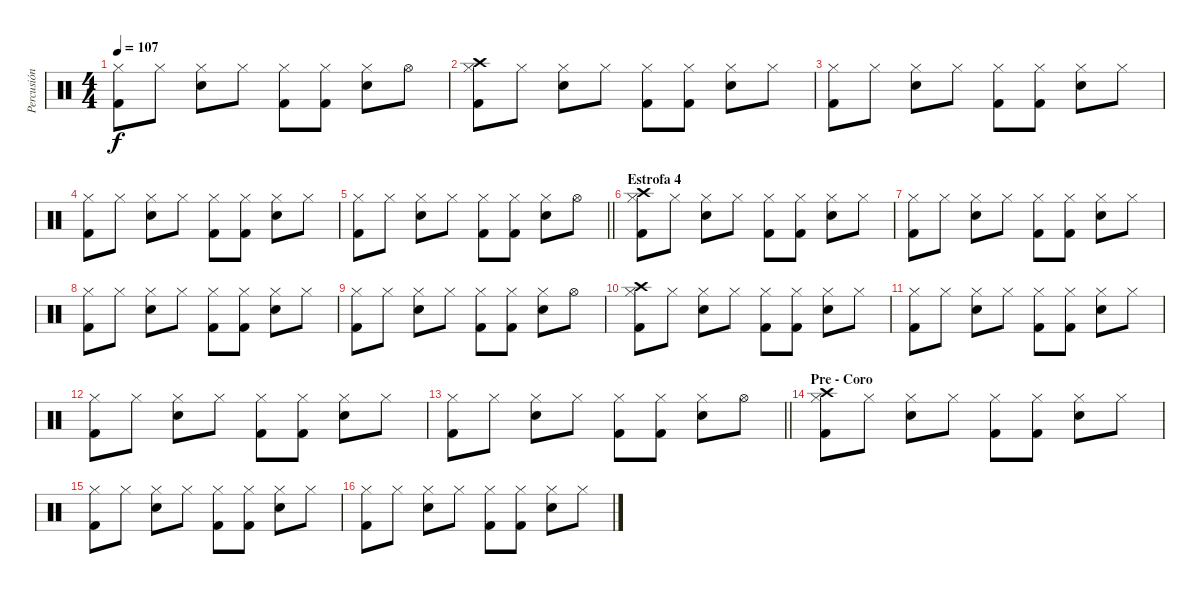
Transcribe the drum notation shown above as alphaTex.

\track ("Percusión" "Percusión") {instrument percussion}
\staff {score}
\articulation defaults
\ts (4 4)
\tempo 107
\clef neutral
\ks c
("Hi-Hat (closed)" "Kick (hit) 2").8{dy f} "Hi-Hat (closed)".8 ("Hi-Hat (closed)" "Snare (hit) 2").8 "Hi-Hat (closed)".8 ("Hi-Hat (closed)" "Kick (hit) 2").8 ("Hi-Hat (closed)" "Kick (hit) 2").8 ("Hi-Hat (closed)" "Snare (hit) 2").8 "Hi-Hat (open)".8 |
("Hi-Hat (closed)" "Kick (hit) 2" "Crash high (hit)").8 "Hi-Hat (closed)".8 ("Hi-Hat (closed)" "Snare (hit) 2").8 "Hi-Hat (closed)".8 ("Hi-Hat (closed)" "Kick (hit) 2").8 ("Hi-Hat (closed)" "Kick (hit) 2").8 ("Hi-Hat (closed)" "Snare (hit) 2").8 "Hi-Hat (closed)".8 |
("Hi-Hat (closed)" "Kick (hit) 2").8 "Hi-Hat (closed)".8 ("Hi-Hat (closed)" "Snare (hit) 2").8 "Hi-Hat (closed)".8 ("Hi-Hat (closed)" "Kick (hit) 2").8 ("Hi-Hat (closed)" "Kick (hit) 2").8 ("Hi-Hat (closed)" "Snare (hit) 2").8 "Hi-Hat (closed)".8 |
("Hi-Hat (closed)" "Kick (hit) 2").8 "Hi-Hat (closed)".8 ("Hi-Hat (closed)" "Snare (hit) 2").8 "Hi-Hat (closed)".8 ("Hi-Hat (closed)" "Kick (hit) 2").8 ("Hi-Hat (closed)" "Kick (hit) 2").8 ("Hi-Hat (closed)" "Snare (hit) 2").8 "Hi-Hat (closed)".8 |
\barLineRight lightlight
("Hi-Hat (closed)" "Kick (hit) 2").8 "Hi-Hat (closed)".8 ("Hi-Hat (closed)" "Snare (hit) 2").8 "Hi-Hat (closed)".8 ("Hi-Hat (closed)" "Kick (hit) 2").8 ("Hi-Hat (closed)" "Kick (hit) 2").8 ("Hi-Hat (closed)" "Snare (hit) 2").8 "Hi-Hat (open)".8 |
\section ("" "Estrofa 4")
("Hi-Hat (closed)" "Kick (hit) 2" "Crash high (hit)").8 "Hi-Hat (closed)".8 ("Hi-Hat (closed)" "Snare (hit) 2").8 "Hi-Hat (closed)".8 ("Hi-Hat (closed)" "Kick (hit) 2").8 ("Hi-Hat (closed)" "Kick (hit) 2").8 ("Hi-Hat (closed)" "Snare (hit) 2").8 "Hi-Hat (closed)".8 |
("Hi-Hat (closed)" "Kick (hit) 2").8 "Hi-Hat (closed)".8 ("Hi-Hat (closed)" "Snare (hit) 2").8 "Hi-Hat (closed)".8 ("Hi-Hat (closed)" "Kick (hit) 2").8 ("Hi-Hat (closed)" "Kick (hit) 2").8 ("Hi-Hat (closed)" "Snare (hit) 2").8 "Hi-Hat (closed)".8 |
("Hi-Hat (closed)" "Kick (hit) 2").8 "Hi-Hat (closed)".8 ("Hi-Hat (closed)" "Snare (hit) 2").8 "Hi-Hat (closed)".8 ("Hi-Hat (closed)" "Kick (hit) 2").8 ("Hi-Hat (closed)" "Kick (hit) 2").8 ("Hi-Hat (closed)" "Snare (hit) 2").8 "Hi-Hat (closed)".8 |
("Hi-Hat (closed)" "Kick (hit) 2").8 "Hi-Hat (closed)".8 ("Hi-Hat (closed)" "Snare (hit) 2").8 "Hi-Hat (closed)".8 ("Hi-Hat (closed)" "Kick (hit) 2").8 ("Hi-Hat (closed)" "Kick (hit) 2").8 ("Hi-Hat (closed)" "Snare (hit) 2").8 "Hi-Hat (open)".8 |
("Hi-Hat (closed)" "Kick (hit) 2" "Crash high (hit)").8 "Hi-Hat (closed)".8 ("Hi-Hat (closed)" "Snare (hit) 2").8 "Hi-Hat (closed)".8 ("Hi-Hat (closed)" "Kick (hit) 2").8 ("Hi-Hat (closed)" "Kick (hit) 2").8 ("Hi-Hat (closed)" "Snare (hit) 2").8 "Hi-Hat (closed)".8 |
("Hi-Hat (closed)" "Kick (hit) 2").8 "Hi-Hat (closed)".8 ("Hi-Hat (closed)" "Snare (hit) 2").8 "Hi-Hat (closed)".8 ("Hi-Hat (closed)" "Kick (hit) 2").8 ("Hi-Hat (closed)" "Kick (hit) 2").8 ("Hi-Hat (closed)" "Snare (hit) 2").8 "Hi-Hat (closed)".8 |
("Hi-Hat (closed)" "Kick (hit) 2").8 "Hi-Hat (closed)".8 ("Hi-Hat (closed)" "Snare (hit) 2").8 "Hi-Hat (closed)".8 ("Hi-Hat (closed)" "Kick (hit) 2").8 ("Hi-Hat (closed)" "Kick (hit) 2").8 ("Hi-Hat (closed)" "Snare (hit) 2").8 "Hi-Hat (closed)".8 |
\barLineRight lightlight
("Hi-Hat (closed)" "Kick (hit) 2").8 "Hi-Hat (closed)".8 ("Hi-Hat (closed)" "Snare (hit) 2").8 "Hi-Hat (closed)".8 ("Hi-Hat (closed)" "Kick (hit) 2").8 ("Hi-Hat (closed)" "Kick (hit) 2").8 ("Hi-Hat (closed)" "Snare (hit) 2").8 "Hi-Hat (open)".8 |
\section ("" "Pre - Coro")
("Hi-Hat (closed)" "Kick (hit) 2" "Crash high (hit)").8 "Hi-Hat (closed)".8 ("Hi-Hat (closed)" "Snare (hit) 2").8 "Hi-Hat (closed)".8 ("Hi-Hat (closed)" "Kick (hit) 2").8 ("Hi-Hat (closed)" "Kick (hit) 2").8 ("Hi-Hat (closed)" "Snare (hit) 2").8 "Hi-Hat (closed)".8 |
("Hi-Hat (closed)" "Kick (hit) 2").8 "Hi-Hat (closed)".8 ("Hi-Hat (closed)" "Snare (hit) 2").8 "Hi-Hat (closed)".8 ("Hi-Hat (closed)" "Kick (hit) 2").8 ("Hi-Hat (closed)" "Kick (hit) 2").8 ("Hi-Hat (closed)" "Snare (hit) 2").8 "Hi-Hat (closed)".8 |
("Hi-Hat (closed)" "Kick (hit) 2").8 "Hi-Hat (closed)".8 ("Hi-Hat (closed)" "Snare (hit) 2").8 "Hi-Hat (closed)".8 ("Hi-Hat (closed)" "Kick (hit) 2").8 ("Hi-Hat (closed)" "Kick (hit) 2").8 ("Hi-Hat (closed)" "Snare (hit) 2").8 "Hi-Hat (closed)".8
